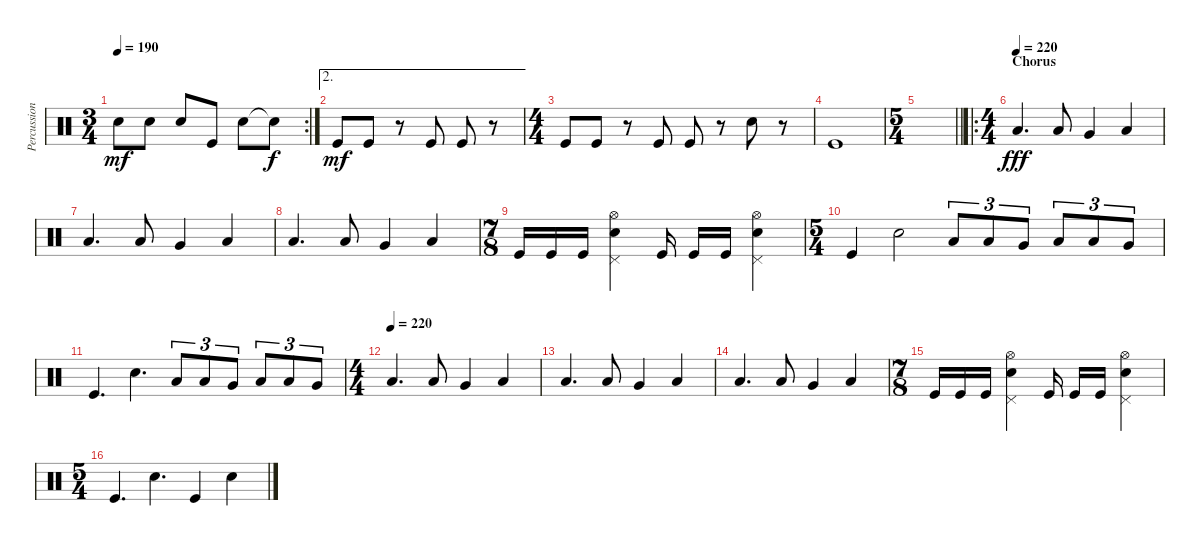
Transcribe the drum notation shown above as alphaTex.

\track ("Percussion" "Percussion") {instrument percussion}
\staff {score}
\articulation defaults
\rc 2
\ts (3 4)
\tempo 190
\clef neutral
\ks c "Electric Snare (hit)".8{dy mf} "Electric Snare (hit)".8 "Electric Snare (hit)".8 "Kick (hit)".8 "Electric Snare (hit)".8 "Snare (hit)"{t}.8{dy f}
|
\ae 2 "Kick (hit)".8{dy mf} "Kick (hit)".8
r.8 "Kick (hit)".8 "Kick (hit)".8 r.8 |
\ts (4 4)
"Kick (hit)".8 "Kick (hit)".8 r.8 "Kick (hit)".8 "Kick (hit)".8 r.8 "Electric Snare (hit)".8 r.8 |
"Kick (hit)".1 |
\ts (5 4)
\barLineRight lightlight
|
\ro
\ts (4 4)
\section ("" "Chorus")
\tempo (220)
"Low Floor Tom (hit)".4{d dy fff} "Low Tom (hit)".8 "Very Low Tom (hit)".4 "Low Floor Tom (hit)".4 |
"Low Floor Tom (hit)".4{d} "Low Tom (hit)".8 "Very Low Tom (hit)".4 "Low Floor Tom (hit)".4 |
"Low Floor Tom (hit)".4{d} "Low Tom (hit)".8 "Very Low Tom (hit)".4 "Low Floor Tom (hit)".4 |
\ts (7 8)
"Kick (hit)".16 "Kick (hit)".16 "Kick (hit)".16 ("Pedal Hi-Hat (hit)" "Hi-Hat (open)" "Electric Snare (hit)").4 "Kick (hit)".16 "Kick (hit)".16 "Kick (hit)".16 ("Pedal Hi-Hat (hit)" "Hi-Hat (open)" "Electric Snare (hit)").4 |
\ts (5 4)
"Kick (hit)".4 "Electric Snare (hit)".2 "Low Floor Tom (hit)".8{tu (3 2)} "Low Tom (hit)".8{tu (3 2)} "Very Low Tom (hit)".8{tu (3 2)} "Low Floor Tom (hit)".8{tu (3 2)} "Low Tom (hit)".8{tu (3 2)} "Very Low Tom (hit)".8{tu (3 2)} |
"Kick (hit)".4{d} "Electric Snare (hit)".4{d} "Low Floor Tom (hit)".8{tu (3 2)} "Low Tom (hit)".8{tu (3 2)} "Very Low Tom (hit)".8{tu (3 2)} "Low Floor Tom (hit)".8{tu (3 2)} "Low Tom (hit)".8{tu (3 2)} "Very Low Tom (hit)".8{tu (3 2)} |
\ts (4 4)
\tempo (220)
"Low Floor Tom (hit)".4{d} "Low Tom (hit)".8 "Very Low Tom (hit)".4 "Low Floor Tom (hit)".4 |
"Low Floor Tom (hit)".4{d} "Low Tom (hit)".8 "Very Low Tom (hit)".4 "Low Floor Tom (hit)".4 |
"Low Floor Tom (hit)".4{d} "Low Tom (hit)".8 "Very Low Tom (hit)".4 "Low Floor Tom (hit)".4 |
\ts (7 8)
"Kick (hit)".16 "Kick (hit)".16 "Kick (hit)".16 ("Pedal Hi-Hat (hit)" "Hi-Hat (open)" "Electric Snare (hit)").4 "Kick (hit)".16 "Kick (hit)".16 "Kick (hit)".16 ("Pedal Hi-Hat (hit)" "Hi-Hat (open)" "Electric Snare (hit)").4 |
\ts (5 4)
"Kick (hit)".4{d} "Electric Snare (hit)".4{d} "Kick (hit)".4 "Electric Snare (hit)".4
